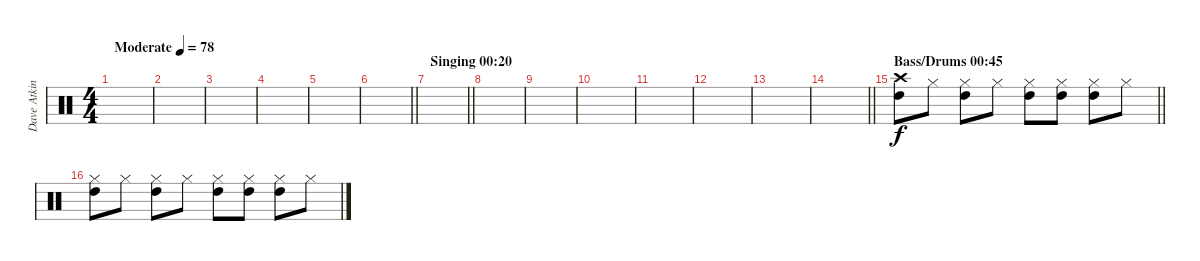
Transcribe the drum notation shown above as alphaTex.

\track ("Dave Atkins" "Dave Atkin") {instrument percussion}
\staff {score}
\articulation defaults
\ts (4 4)
\tempo (78 "Moderate")
\clef neutral
\ks c
|
|
|
|
|
\barLineRight lightlight
|
\section ("" "Singing 00:20")
\barLineRight lightlight
|
\section ("" "")
|
|
|
|
|
|
\barLineRight lightlight
|
\section ("" "Bass/Drums 00:45")
\barLineRight lightlight
("Crash high (hit)" "High Tom (hit)").8 "Hi-Hat (closed)".8 ("Hi-Hat (closed)" "High Tom (hit)").8 "Hi-Hat (closed)".8 ("Hi-Hat (closed)" "High Tom (hit)").8 ("Hi-Hat (closed)" "High Tom (hit)").8 ("Hi-Hat (closed)" "High Tom (hit)").8 "Hi-Hat (closed)".8 |
\section ("" "")
("Hi-Hat (closed)" "High Tom (hit)").8 "Hi-Hat (closed)".8 ("Hi-Hat (closed)" "High Tom (hit)").8 "Hi-Hat (closed)".8 ("Hi-Hat (closed)" "High Tom (hit)").8 ("Hi-Hat (closed)" "High Tom (hit)").8 ("Hi-Hat (closed)" "High Tom (hit)").8 "Hi-Hat (closed)".8
